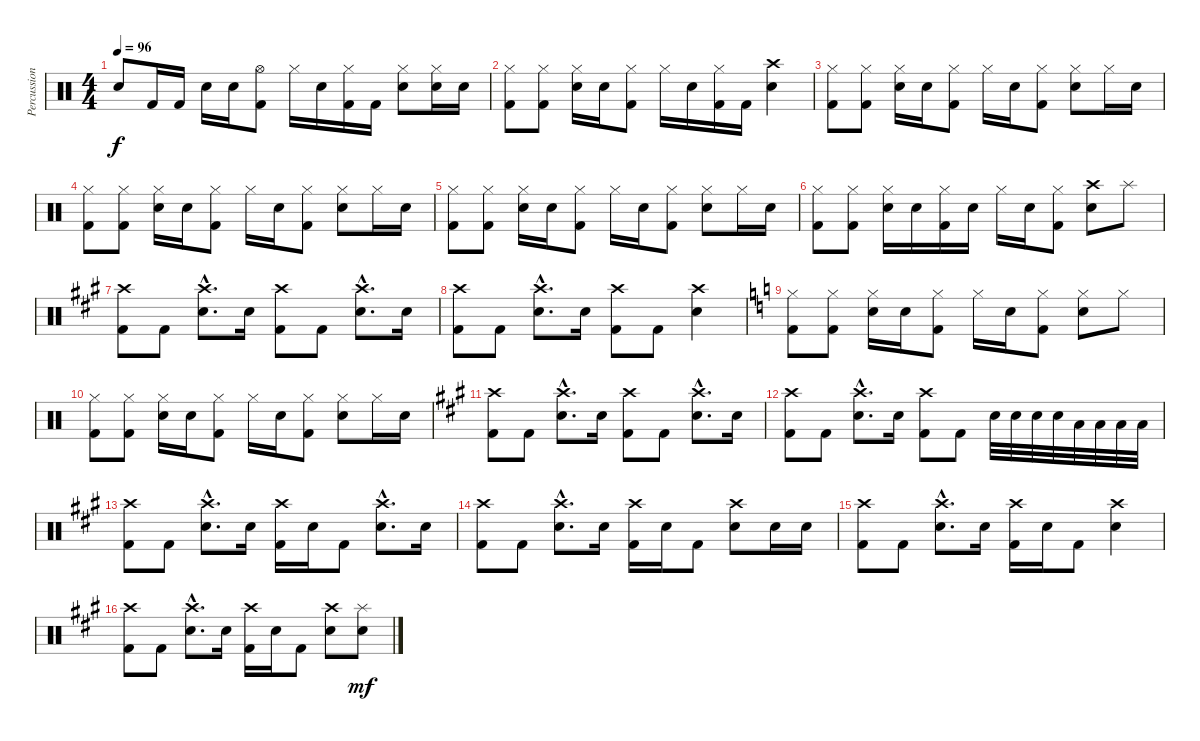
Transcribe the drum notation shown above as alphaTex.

\track ("Percussion" "Percussion") {instrument percussion}
\staff {score}
\articulation defaults
\ts (4 4)
\tempo 96
\clef neutral
\ks c "Electric Snare (hit)".8{dy f} "Kick (hit) 2".16 "Kick (hit) 2".16 "Electric Snare (hit)".16 "Electric Snare (hit)".16
("Hi-Hat (open)" "Kick (hit) 2").8 "Hi-Hat (closed)".16 "Electric Snare (hit)".16 ("Hi-Hat (closed)" "Kick (hit) 2").16 "Kick (hit) 2".16 ("Electric Snare (hit)" "Hi-Hat (closed)").8 ("Electric Snare (hit)" "Hi-Hat (closed)").16 "Electric Snare (hit)".16 |
("Hi-Hat (closed)" "Kick (hit) 2").8 ("Hi-Hat (closed)" "Kick (hit) 2").8 ("Hi-Hat (closed)" "Electric Snare (hit)").16 "Electric Snare (hit)".16 ("Hi-Hat (closed)" "Kick (hit) 2").8 "Hi-Hat (closed)".16 "Electric Snare (hit)".16 ("Hi-Hat (closed)" "Kick (hit) 2").16 "Kick (hit) 2".16 ("Crash high (hit)" "Electric Snare (hit)").4 |
("Hi-Hat (closed)" "Kick (hit) 2").8 ("Hi-Hat (closed)" "Kick (hit) 2").8 ("Hi-Hat (closed)" "Electric Snare (hit)").16 "Electric Snare (hit)".16 ("Hi-Hat (closed)" "Kick (hit) 2").8 "Hi-Hat (closed)".16 "Electric Snare (hit)".16 ("Hi-Hat (closed)" "Kick (hit) 2").8 ("Hi-Hat (closed)" "Electric Snare (hit)").8 "Hi-Hat (closed)".16 "Electric Snare (hit)".16 |
("Hi-Hat (closed)" "Kick (hit) 2").8 ("Hi-Hat (closed)" "Kick (hit) 2").8 ("Hi-Hat (closed)" "Electric Snare (hit)").16 "Electric Snare (hit)".16 ("Hi-Hat (closed)" "Kick (hit) 2").8 "Hi-Hat (closed)".16 "Electric Snare (hit)".16 ("Hi-Hat (closed)" "Kick (hit) 2").8 ("Hi-Hat (closed)" "Electric Snare (hit)").8 "Hi-Hat (closed)".16 "Electric Snare (hit)".16 |
("Hi-Hat (closed)" "Kick (hit) 2").8 ("Hi-Hat (closed)" "Kick (hit) 2").8 ("Hi-Hat (closed)" "Electric Snare (hit)").16 "Electric Snare (hit)".16 ("Hi-Hat (closed)" "Kick (hit) 2").8 "Hi-Hat (closed)".16 "Electric Snare (hit)".16 ("Hi-Hat (closed)" "Kick (hit) 2").8 ("Hi-Hat (closed)" "Electric Snare (hit)").8 "Hi-Hat (closed)".16 "Electric Snare (hit)".16 |
("Hi-Hat (closed)" "Kick (hit) 2").8 ("Hi-Hat (closed)" "Kick (hit) 2").8 ("Hi-Hat (closed)" "Electric Snare (hit)").16 "Electric Snare (hit)".16 ("Hi-Hat (closed)" "Kick (hit) 2").16 "Electric Snare (hit)".16 "Hi-Hat (closed)".16 "Electric Snare (hit)".16 ("Hi-Hat (closed)" "Kick (hit) 2").8 ("Crash high (hit)" "Electric Snare (hit)").8 "Splash (hit)".8 |
\ks a
("Crash high (hit)" "Kick (hit) 2").8 "Kick (hit) 2".8 ("Crash high (hit)"{hac} "Electric Snare (hit)"{hac}).8{d} "Electric Snare (hit)".16 ("Crash high (hit)" "Kick (hit) 2").8 "Kick (hit) 2".8 ("Crash high (hit)"{hac} "Electric Snare (hit)"{hac}).8{d} "Electric Snare (hit)".16 |
("Crash high (hit)" "Kick (hit) 2").8 "Kick (hit) 2".8 ("Crash high (hit)"{hac} "Electric Snare (hit)"{hac}).8{d} "Electric Snare (hit)".16 ("Crash high (hit)" "Kick (hit) 2").8 "Kick (hit) 2".8 ("Crash high (hit)" "Electric Snare (hit)").4 |
\ks c
("Hi-Hat (closed)" "Kick (hit) 2").8 ("Hi-Hat (closed)" "Kick (hit) 2").8 ("Hi-Hat (closed)" "Electric Snare (hit)").16 "Electric Snare (hit)".16 ("Hi-Hat (closed)" "Kick (hit) 2").8 "Hi-Hat (closed)".16 "Electric Snare (hit)".16 ("Hi-Hat (closed)" "Kick (hit) 2").8 ("Hi-Hat (closed)" "Electric Snare (hit)").8 "Hi-Hat (closed)".8 |
("Hi-Hat (closed)" "Kick (hit) 2").8 ("Hi-Hat (closed)" "Kick (hit) 2").8 ("Hi-Hat (closed)" "Electric Snare (hit)").16 "Electric Snare (hit)".16 ("Hi-Hat (closed)" "Kick (hit) 2").8 "Hi-Hat (closed)".16 "Electric Snare (hit)".16 ("Hi-Hat (closed)" "Kick (hit) 2").8 ("Hi-Hat (closed)" "Electric Snare (hit)").8 "Hi-Hat (closed)".16 "Electric Snare (hit)".16 |
\ks a
("Crash high (hit)" "Kick (hit) 2").8 "Kick (hit) 2".8 ("Crash high (hit)"{hac} "Electric Snare (hit)"{hac}).8{d} "Electric Snare (hit)".16 ("Crash high (hit)" "Kick (hit) 2").8 "Kick (hit) 2".8 ("Crash high (hit)"{hac} "Electric Snare (hit)"{hac}).8{d} "Electric Snare (hit)".16 |
("Crash high (hit)" "Kick (hit) 2").8 "Kick (hit) 2".8 ("Crash high (hit)"{hac} "Electric Snare (hit)"{hac}).8{d} "Electric Snare (hit)".16 ("Crash high (hit)" "Kick (hit) 2").8 "Kick (hit) 2".8 "Electric Snare (hit)".32 "Electric Snare (hit)".32 "Electric Snare (hit)".32 "Electric Snare (hit)".32 "Low Tom (hit)".32 "Low Tom (hit)".32 "Low Tom (hit)".32 "Low Tom (hit)".32 |
("Crash high (hit)" "Kick (hit) 2").8 "Kick (hit) 2".8 ("Crash high (hit)"{hac} "Electric Snare (hit)"{hac}).8{d} "Electric Snare (hit)".16 ("Crash high (hit)" "Kick (hit) 2").16 "Electric Snare (hit)".16 "Kick (hit) 2".8 ("Crash high (hit)"{hac} "Electric Snare (hit)"{hac}).8{d} "Electric Snare (hit)".16 |
("Crash high (hit)" "Kick (hit) 2").8 "Kick (hit) 2".8 ("Crash high (hit)"{hac} "Electric Snare (hit)"{hac}).8{d} "Electric Snare (hit)".16 ("Crash high (hit)" "Kick (hit) 2").16 "Electric Snare (hit)".16 "Kick (hit) 2".8 ("Crash high (hit)" "Electric Snare (hit)").8 "Electric Snare (hit)".16 "Electric Snare (hit)".16 |
("Crash high (hit)" "Kick (hit) 2").8 "Kick (hit) 2".8 ("Crash high (hit)"{hac} "Electric Snare (hit)"{hac}).8{d} "Electric Snare (hit)".16 ("Crash high (hit)" "Kick (hit) 2").16 "Electric Snare (hit)".16 "Kick (hit) 2".8 ("Crash high (hit)" "Electric Snare (hit)").4 |
("Crash high (hit)" "Kick (hit) 2").8 "Kick (hit) 2".8 ("Crash high (hit)"{hac} "Electric Snare (hit)"{hac}).8{d} "Electric Snare (hit)".16 ("Crash high (hit)" "Kick (hit) 2").16 "Electric Snare (hit)".16 "Kick (hit) 2".8 ("Crash high (hit)" "Electric Snare (hit)").8 ("Splash (hit)" "Electric Snare (hit)").8{dy mf}
